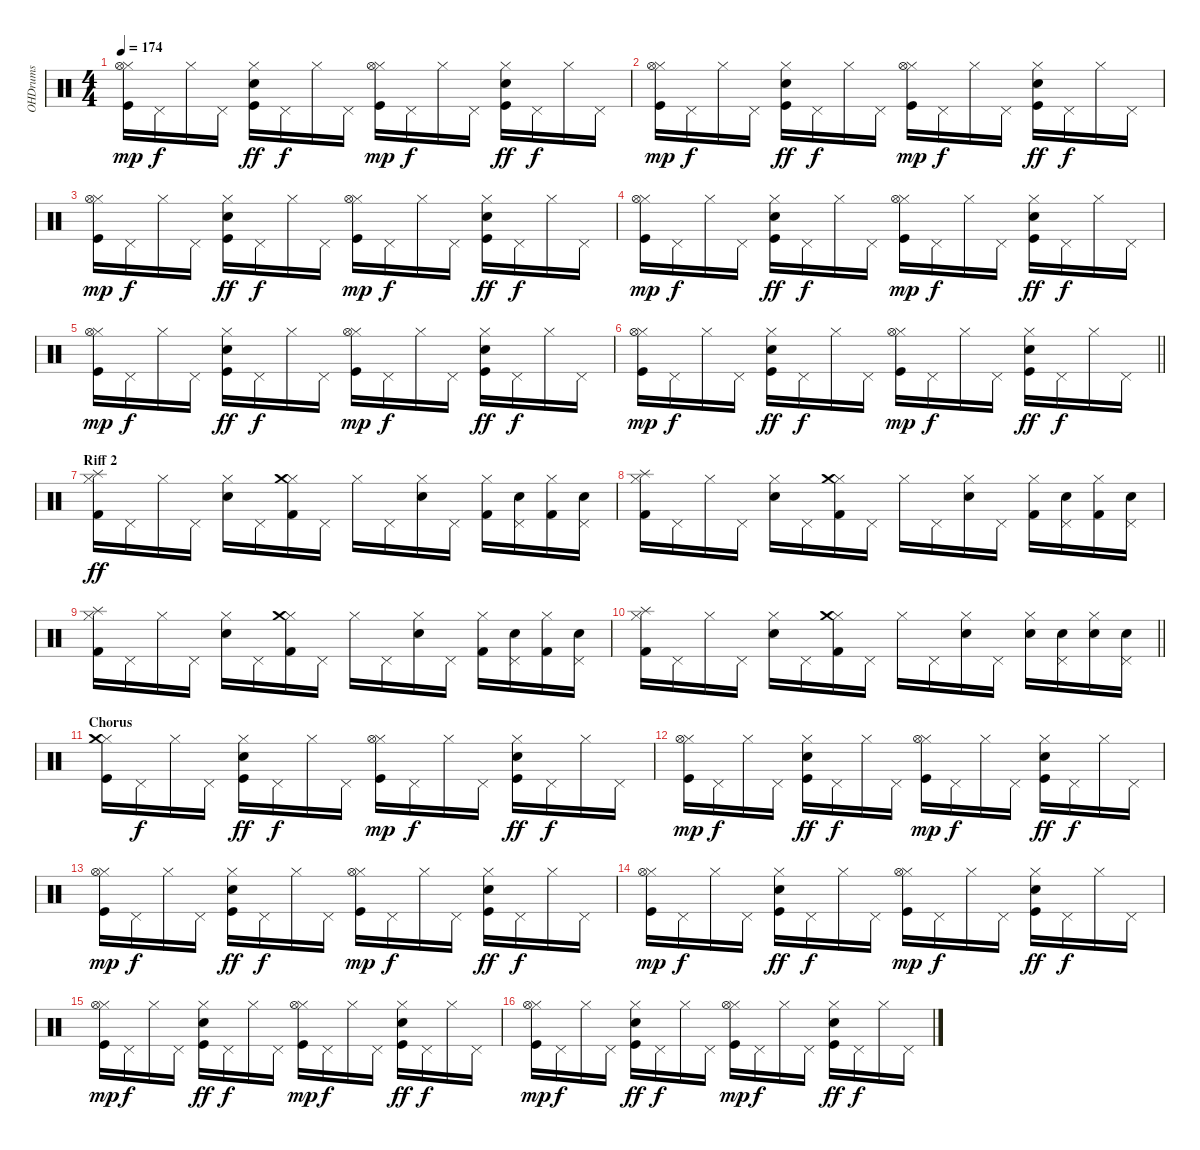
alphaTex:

\track ("OHDrums" "OHDrums") {instrument percussion}
\staff {score}
\articulation defaults
\ts (4 4)
\tempo 174
\clef neutral
\ks c
("Kick (hit)" "Hi-Hat (closed)" "Hi-Hat (open)").16{dy mp} "Pedal Hi-Hat (hit)".16{dy f} "Hi-Hat (closed)".16 "Pedal Hi-Hat (hit)".16 ("Kick (hit)" "Electric Snare (hit)" "Hi-Hat (closed)").16{dy ff} "Pedal Hi-Hat (hit)".16{dy f} "Hi-Hat (closed)".16 "Pedal Hi-Hat (hit)".16 ("Kick (hit)" "Hi-Hat (closed)" "Hi-Hat (open)").16{dy mp} "Pedal Hi-Hat (hit)".16{dy f} "Hi-Hat (closed)".16 "Pedal Hi-Hat (hit)".16 ("Kick (hit)" "Electric Snare (hit)" "Hi-Hat (closed)").16{dy ff} "Pedal Hi-Hat (hit)".16{dy f} "Hi-Hat (closed)".16 "Pedal Hi-Hat (hit)".16 |
("Kick (hit)" "Hi-Hat (closed)" "Hi-Hat (open)").16{dy mp} "Pedal Hi-Hat (hit)".16{dy f} "Hi-Hat (closed)".16 "Pedal Hi-Hat (hit)".16 ("Kick (hit)" "Electric Snare (hit)" "Hi-Hat (closed)").16{dy ff} "Pedal Hi-Hat (hit)".16{dy f} "Hi-Hat (closed)".16 "Pedal Hi-Hat (hit)".16 ("Kick (hit)" "Hi-Hat (closed)" "Hi-Hat (open)").16{dy mp} "Pedal Hi-Hat (hit)".16{dy f} "Hi-Hat (closed)".16 "Pedal Hi-Hat (hit)".16 ("Kick (hit)" "Electric Snare (hit)" "Hi-Hat (closed)").16{dy ff} "Pedal Hi-Hat (hit)".16{dy f} "Hi-Hat (closed)".16 "Pedal Hi-Hat (hit)".16 |
("Kick (hit)" "Hi-Hat (closed)" "Hi-Hat (open)").16{dy mp} "Pedal Hi-Hat (hit)".16{dy f} "Hi-Hat (closed)".16 "Pedal Hi-Hat (hit)".16 ("Kick (hit)" "Electric Snare (hit)" "Hi-Hat (closed)").16{dy ff} "Pedal Hi-Hat (hit)".16{dy f} "Hi-Hat (closed)".16 "Pedal Hi-Hat (hit)".16 ("Kick (hit)" "Hi-Hat (closed)" "Hi-Hat (open)").16{dy mp} "Pedal Hi-Hat (hit)".16{dy f} "Hi-Hat (closed)".16 "Pedal Hi-Hat (hit)".16 ("Kick (hit)" "Electric Snare (hit)" "Hi-Hat (closed)").16{dy ff} "Pedal Hi-Hat (hit)".16{dy f} "Hi-Hat (closed)".16 "Pedal Hi-Hat (hit)".16 |
("Kick (hit)" "Hi-Hat (closed)" "Hi-Hat (open)").16{dy mp} "Pedal Hi-Hat (hit)".16{dy f} "Hi-Hat (closed)".16 "Pedal Hi-Hat (hit)".16 ("Kick (hit)" "Electric Snare (hit)" "Hi-Hat (closed)").16{dy ff} "Pedal Hi-Hat (hit)".16{dy f} "Hi-Hat (closed)".16 "Pedal Hi-Hat (hit)".16 ("Kick (hit)" "Hi-Hat (closed)" "Hi-Hat (open)").16{dy mp} "Pedal Hi-Hat (hit)".16{dy f} "Hi-Hat (closed)".16 "Pedal Hi-Hat (hit)".16 ("Kick (hit)" "Electric Snare (hit)" "Hi-Hat (closed)").16{dy ff} "Pedal Hi-Hat (hit)".16{dy f} "Hi-Hat (closed)".16 "Pedal Hi-Hat (hit)".16 |
("Kick (hit)" "Hi-Hat (closed)" "Hi-Hat (open)").16{dy mp} "Pedal Hi-Hat (hit)".16{dy f} "Hi-Hat (closed)".16 "Pedal Hi-Hat (hit)".16 ("Kick (hit)" "Electric Snare (hit)" "Hi-Hat (closed)").16{dy ff} "Pedal Hi-Hat (hit)".16{dy f} "Hi-Hat (closed)".16 "Pedal Hi-Hat (hit)".16 ("Kick (hit)" "Hi-Hat (closed)" "Hi-Hat (open)").16{dy mp} "Pedal Hi-Hat (hit)".16{dy f} "Hi-Hat (closed)".16 "Pedal Hi-Hat (hit)".16 ("Kick (hit)" "Electric Snare (hit)" "Hi-Hat (closed)").16{dy ff} "Pedal Hi-Hat (hit)".16{dy f} "Hi-Hat (closed)".16 "Pedal Hi-Hat (hit)".16 |
\barLineRight lightlight
("Kick (hit)" "Hi-Hat (closed)" "Hi-Hat (open)").16{dy mp} "Pedal Hi-Hat (hit)".16{dy f} "Hi-Hat (closed)".16 "Pedal Hi-Hat (hit)".16 ("Kick (hit)" "Electric Snare (hit)" "Hi-Hat (closed)").16{dy ff} "Pedal Hi-Hat (hit)".16{dy f} "Hi-Hat (closed)".16 "Pedal Hi-Hat (hit)".16 ("Kick (hit)" "Hi-Hat (closed)" "Hi-Hat (open)").16{dy mp} "Pedal Hi-Hat (hit)".16{dy f} "Hi-Hat (closed)".16 "Pedal Hi-Hat (hit)".16 ("Kick (hit)" "Electric Snare (hit)" "Hi-Hat (closed)").16{dy ff} "Pedal Hi-Hat (hit)".16{dy f} "Hi-Hat (closed)".16 "Pedal Hi-Hat (hit)".16 |
\section ("" "Riff 2")
("Kick (hit) 2" "Hi-Hat (closed)" "Splash (hit)").16{dy ff} "Pedal Hi-Hat (hit)".16 "Hi-Hat (closed)".16 "Pedal Hi-Hat (hit)".16 ("Electric Snare (hit)" "Hi-Hat (closed)").16 "Pedal Hi-Hat (hit)".16 ("Kick (hit) 2" "Hi-Hat (closed)" "Crash medium (hit)").16 "Pedal Hi-Hat (hit)".16 "Hi-Hat (closed)".16 "Pedal Hi-Hat (hit)".16 ("Electric Snare (hit)" "Hi-Hat (closed)").16 "Pedal Hi-Hat (hit)".16 ("Kick (hit) 2" "Hi-Hat (closed)").16 ("Electric Snare (hit)" "Pedal Hi-Hat (hit)").16 ("Kick (hit) 2" "Hi-Hat (closed)").16 ("Electric Snare (hit)" "Pedal Hi-Hat (hit)").16 |
("Kick (hit) 2" "Hi-Hat (closed)" "Splash (hit)").16 "Pedal Hi-Hat (hit)".16 "Hi-Hat (closed)".16 "Pedal Hi-Hat (hit)".16 ("Electric Snare (hit)" "Hi-Hat (closed)").16 "Pedal Hi-Hat (hit)".16 ("Kick (hit) 2" "Hi-Hat (closed)" "Crash medium (hit)").16 "Pedal Hi-Hat (hit)".16 "Hi-Hat (closed)".16 "Pedal Hi-Hat (hit)".16 ("Electric Snare (hit)" "Hi-Hat (closed)").16 "Pedal Hi-Hat (hit)".16 ("Kick (hit) 2" "Hi-Hat (closed)").16 ("Electric Snare (hit)" "Pedal Hi-Hat (hit)").16 ("Kick (hit) 2" "Hi-Hat (closed)").16 ("Electric Snare (hit)" "Pedal Hi-Hat (hit)").16 |
("Kick (hit) 2" "Hi-Hat (closed)" "Splash (hit)").16 "Pedal Hi-Hat (hit)".16 "Hi-Hat (closed)".16 "Pedal Hi-Hat (hit)".16 ("Electric Snare (hit)" "Hi-Hat (closed)").16 "Pedal Hi-Hat (hit)".16 ("Kick (hit) 2" "Hi-Hat (closed)" "Crash medium (hit)").16 "Pedal Hi-Hat (hit)".16 "Hi-Hat (closed)".16 "Pedal Hi-Hat (hit)".16 ("Electric Snare (hit)" "Hi-Hat (closed)").16 "Pedal Hi-Hat (hit)".16 ("Kick (hit) 2" "Hi-Hat (closed)").16 ("Electric Snare (hit)" "Pedal Hi-Hat (hit)").16 ("Kick (hit) 2" "Hi-Hat (closed)").16 ("Electric Snare (hit)" "Pedal Hi-Hat (hit)").16 |
\barLineRight lightlight
("Kick (hit) 2" "Hi-Hat (closed)" "Splash (hit)").16 "Pedal Hi-Hat (hit)".16 "Hi-Hat (closed)".16 "Pedal Hi-Hat (hit)".16 ("Electric Snare (hit)" "Hi-Hat (closed)").16 "Pedal Hi-Hat (hit)".16 ("Kick (hit) 2" "Hi-Hat (closed)" "Crash medium (hit)").16 "Pedal Hi-Hat (hit)".16 "Hi-Hat (closed)".16 "Pedal Hi-Hat (hit)".16 ("Electric Snare (hit)" "Hi-Hat (closed)").16 "Pedal Hi-Hat (hit)".16 ("Electric Snare (hit)" "Hi-Hat (closed)").16 ("Electric Snare (hit)" "Pedal Hi-Hat (hit)").16 ("Electric Snare (hit)" "Hi-Hat (closed)").16 ("Electric Snare (hit)" "Pedal Hi-Hat (hit)").16 |
\section ("" "Chorus")
("Kick (hit)" "Hi-Hat (closed)" "Crash medium (hit)").16 "Pedal Hi-Hat (hit)".16{dy f} "Hi-Hat (closed)".16 "Pedal Hi-Hat (hit)".16 ("Kick (hit)" "Electric Snare (hit)" "Hi-Hat (closed)").16{dy ff} "Pedal Hi-Hat (hit)".16{dy f} "Hi-Hat (closed)".16 "Pedal Hi-Hat (hit)".16 ("Kick (hit)" "Hi-Hat (closed)" "Hi-Hat (open)").16{dy mp} "Pedal Hi-Hat (hit)".16{dy f} "Hi-Hat (closed)".16 "Pedal Hi-Hat (hit)".16 ("Kick (hit)" "Electric Snare (hit)" "Hi-Hat (closed)").16{dy ff} "Pedal Hi-Hat (hit)".16{dy f} "Hi-Hat (closed)".16 "Pedal Hi-Hat (hit)".16 |
("Kick (hit)" "Hi-Hat (closed)" "Hi-Hat (open)").16{dy mp} "Pedal Hi-Hat (hit)".16{dy f} "Hi-Hat (closed)".16 "Pedal Hi-Hat (hit)".16 ("Kick (hit)" "Electric Snare (hit)" "Hi-Hat (closed)").16{dy ff} "Pedal Hi-Hat (hit)".16{dy f} "Hi-Hat (closed)".16 "Pedal Hi-Hat (hit)".16 ("Kick (hit)" "Hi-Hat (closed)" "Hi-Hat (open)").16{dy mp} "Pedal Hi-Hat (hit)".16{dy f} "Hi-Hat (closed)".16 "Pedal Hi-Hat (hit)".16 ("Kick (hit)" "Electric Snare (hit)" "Hi-Hat (closed)").16{dy ff} "Pedal Hi-Hat (hit)".16{dy f} "Hi-Hat (closed)".16 "Pedal Hi-Hat (hit)".16 |
("Kick (hit)" "Hi-Hat (closed)" "Hi-Hat (open)").16{dy mp} "Pedal Hi-Hat (hit)".16{dy f} "Hi-Hat (closed)".16 "Pedal Hi-Hat (hit)".16 ("Kick (hit)" "Electric Snare (hit)" "Hi-Hat (closed)").16{dy ff} "Pedal Hi-Hat (hit)".16{dy f} "Hi-Hat (closed)".16 "Pedal Hi-Hat (hit)".16 ("Kick (hit)" "Hi-Hat (closed)" "Hi-Hat (open)").16{dy mp} "Pedal Hi-Hat (hit)".16{dy f} "Hi-Hat (closed)".16 "Pedal Hi-Hat (hit)".16 ("Kick (hit)" "Electric Snare (hit)" "Hi-Hat (closed)").16{dy ff} "Pedal Hi-Hat (hit)".16{dy f} "Hi-Hat (closed)".16 "Pedal Hi-Hat (hit)".16 |
("Kick (hit)" "Hi-Hat (closed)" "Hi-Hat (open)").16{dy mp} "Pedal Hi-Hat (hit)".16{dy f} "Hi-Hat (closed)".16 "Pedal Hi-Hat (hit)".16 ("Kick (hit)" "Electric Snare (hit)" "Hi-Hat (closed)").16{dy ff} "Pedal Hi-Hat (hit)".16{dy f} "Hi-Hat (closed)".16 "Pedal Hi-Hat (hit)".16 ("Kick (hit)" "Hi-Hat (closed)" "Hi-Hat (open)").16{dy mp} "Pedal Hi-Hat (hit)".16{dy f} "Hi-Hat (closed)".16 "Pedal Hi-Hat (hit)".16 ("Kick (hit)" "Electric Snare (hit)" "Hi-Hat (closed)").16{dy ff} "Pedal Hi-Hat (hit)".16{dy f} "Hi-Hat (closed)".16 "Pedal Hi-Hat (hit)".16 |
("Kick (hit)" "Hi-Hat (closed)" "Hi-Hat (open)").16{dy mp} "Pedal Hi-Hat (hit)".16{dy f} "Hi-Hat (closed)".16 "Pedal Hi-Hat (hit)".16 ("Kick (hit)" "Electric Snare (hit)" "Hi-Hat (closed)").16{dy ff} "Pedal Hi-Hat (hit)".16{dy f} "Hi-Hat (closed)".16 "Pedal Hi-Hat (hit)".16 ("Kick (hit)" "Hi-Hat (closed)" "Hi-Hat (open)").16{dy mp} "Pedal Hi-Hat (hit)".16{dy f} "Hi-Hat (closed)".16 "Pedal Hi-Hat (hit)".16 ("Kick (hit)" "Electric Snare (hit)" "Hi-Hat (closed)").16{dy ff} "Pedal Hi-Hat (hit)".16{dy f} "Hi-Hat (closed)".16 "Pedal Hi-Hat (hit)".16 |
("Kick (hit)" "Hi-Hat (closed)" "Hi-Hat (open)").16{dy mp} "Pedal Hi-Hat (hit)".16{dy f} "Hi-Hat (closed)".16 "Pedal Hi-Hat (hit)".16 ("Kick (hit)" "Electric Snare (hit)" "Hi-Hat (closed)").16{dy ff} "Pedal Hi-Hat (hit)".16{dy f} "Hi-Hat (closed)".16 "Pedal Hi-Hat (hit)".16 ("Kick (hit)" "Hi-Hat (closed)" "Hi-Hat (open)").16{dy mp} "Pedal Hi-Hat (hit)".16{dy f} "Hi-Hat (closed)".16 "Pedal Hi-Hat (hit)".16 ("Kick (hit)" "Electric Snare (hit)" "Hi-Hat (closed)").16{dy ff} "Pedal Hi-Hat (hit)".16{dy f} "Hi-Hat (closed)".16 "Pedal Hi-Hat (hit)".16
